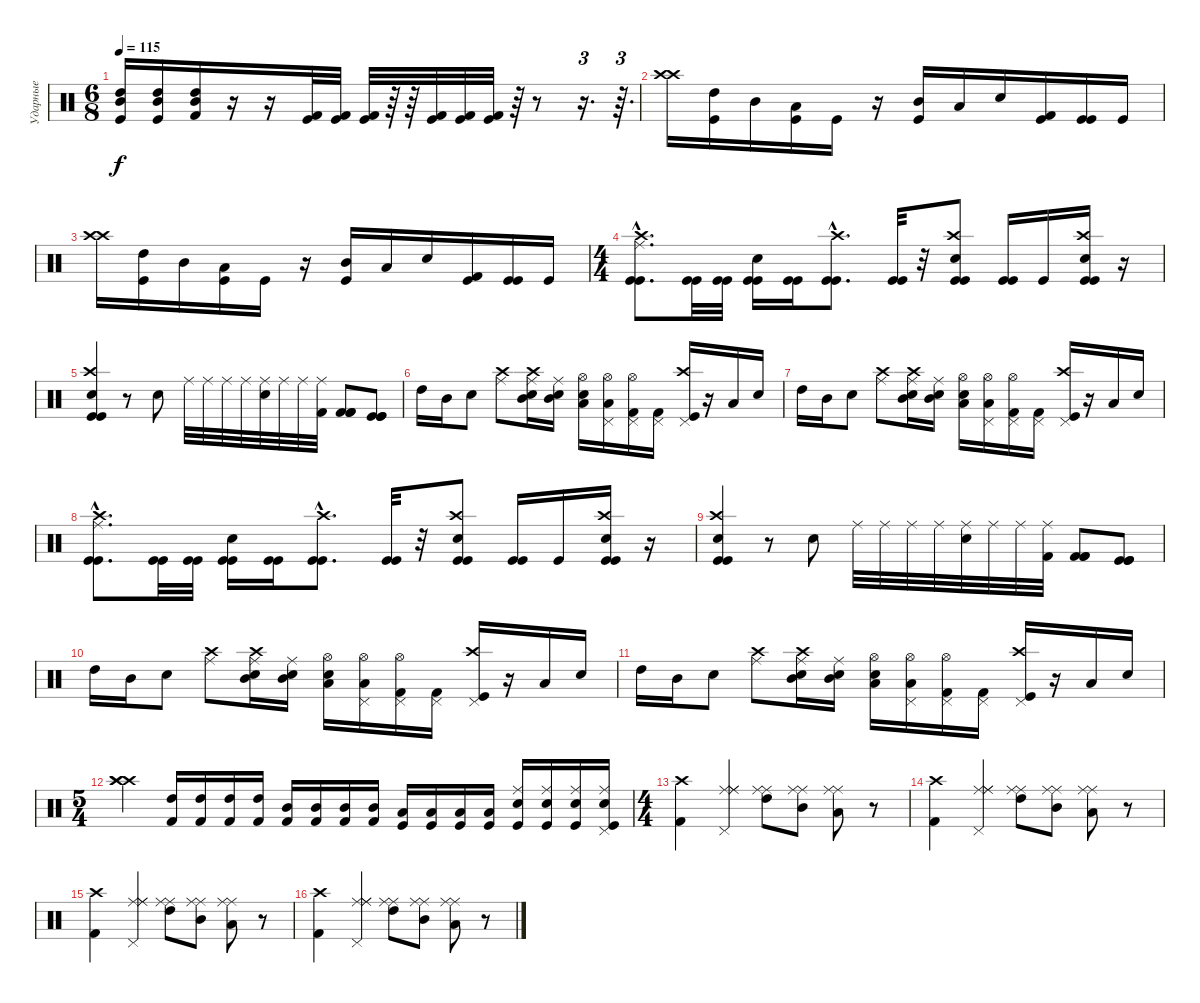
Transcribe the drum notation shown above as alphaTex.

\track ("Ударные" "Ударные") {instrument percussion}
\staff {score}
\articulation defaults
\ts (6 8)
\tempo 115
\clef neutral
\ks c
("High Tom (hit)" "Mid Tom (hit)" "Kick (hit)").16{dy f} ("High Tom (hit)" "Mid Tom (hit)" "Kick (hit)").16 ("High Tom (hit)" "Mid Tom (hit)" "Kick (hit) 2").16 r.16 r.16 ("Kick (hit)" "Kick (hit) 2").32 ("Kick (hit)" "Kick (hit) 2").32 ("Kick (hit)" "Kick (hit) 2").32 r.64 r.64 ("Kick (hit)" "Kick (hit) 2").32 ("Kick (hit)" "Kick (hit) 2").32 ("Kick (hit)" "Kick (hit) 2").32 r.64 r.8 r.16{d tu (3 2)} r.64{d tu (3 2)} |
("Crash high (hit)" "Crash high (hit)").16 ("High Tom (hit)" "Kick (hit)").16 "Mid Tom (hit)".16 ("Low Tom (hit)" "Kick (hit)").16 "Kick (hit)".16 r.16 ("Mid Tom (hit)" "Kick (hit)").16 "Low Tom (hit)".16 "Snare (hit) 2".16 ("Kick (hit) 2" "Kick (hit)").16 ("Kick (hit)" "Kick (hit)").16 "Kick (hit)".16 |
("Crash high (hit)" "Crash high (hit)").16 ("High Tom (hit)" "Kick (hit)").16 "Mid Tom (hit)".16 ("Low Tom (hit)" "Kick (hit)").16 "Kick (hit)".16 r.16 ("Mid Tom (hit)" "Kick (hit)").16 "Low Tom (hit)".16 "Snare (hit) 2".16 ("Kick (hit) 2" "Kick (hit)").16 ("Kick (hit)" "Kick (hit)").16 "Kick (hit)".16 |
\ts (4 4)
("Ride (middle)"{hac} "Crash high (hit)"{hac} "Kick (hit)"{hac} "Kick (hit)"{hac}).8{d} ("Kick (hit)" "Kick (hit)").32 ("Kick (hit)" "Kick (hit)").32 ("Kick (hit)" "Snare (hit) 2" "Kick (hit)").16 ("Kick (hit)" "Kick (hit)").16 ("Crash high (hit)"{hac} "Kick (hit)"{hac} "Kick (hit)"{hac}).8{d} ("Kick (hit)" "Kick (hit)").32 r.32 ("Crash high (hit)" "Kick (hit)" "Snare (hit) 2" "Kick (hit)").8 ("Kick (hit)" "Kick (hit)").16 "Kick (hit)".16 ("Crash high (hit)" "Kick (hit)" "Kick (hit)" "Snare (hit) 2").16 r.16 |
("Crash high (hit)" "Kick (hit)" "Snare (hit) 2" "Kick (hit)").4 r.8 "Electric Snare (hit)".8 "Ride (middle)".32{volume 0} "Ride (middle)".32{volume 14} "Ride (middle)".32 "Ride (middle)".32 ("Ride (middle)" "Electric Snare (hit)").32 "Ride (middle)".32 "Ride (middle)".32 ("Ride (middle)" "Kick (hit) 2").32 ("Kick (hit) 2" "Kick (hit) 2" "Kick (hit) 2").8 ("Kick (hit)" "Kick (hit)" "Kick (hit)").8 |
"High Tom (hit)".16 "Mid Tom (hit)".16 "Electric Snare (hit)".8 ("Crash high (hit)" "Ride (middle)").8 ("Crash high (hit)" "Mid Tom (hit)" "Electric Snare (hit)" "Ride (middle)").16 ("Mid Tom (hit)" "Electric Snare (hit)" "Ride (middle)").16 ("Electric Snare (hit)" "Low Tom (hit)" "Hi-Hat (open)").16 ("Hi-Hat (open)" "Low Tom (hit)" "Pedal Hi-Hat (hit)").16 ("Pedal Hi-Hat (hit)" "Kick (hit) 2" "Hi-Hat (open)").16 ("Kick (hit) 2" "Pedal Hi-Hat (hit)").16 ("Crash high (hit)" "Kick (hit)" "Pedal Hi-Hat (hit)").16 r.16 "Low Floor Tom (hit)".16 "Electric Snare (hit)".16 |
"High Tom (hit)".16 "Mid Tom (hit)".16 "Electric Snare (hit)".8 ("Crash high (hit)" "Ride (middle)").8 ("Crash high (hit)" "Mid Tom (hit)" "Electric Snare (hit)" "Ride (middle)").16 ("Mid Tom (hit)" "Electric Snare (hit)" "Ride (middle)").16 ("Electric Snare (hit)" "Low Tom (hit)" "Hi-Hat (open)").16 ("Hi-Hat (open)" "Low Tom (hit)" "Pedal Hi-Hat (hit)").16 ("Pedal Hi-Hat (hit)" "Kick (hit) 2" "Hi-Hat (open)").16 ("Kick (hit) 2" "Pedal Hi-Hat (hit)").16 ("Crash high (hit)" "Kick (hit)" "Pedal Hi-Hat (hit)").16 r.16 "Low Floor Tom (hit)".16 "Electric Snare (hit)".16 |
("Ride (middle)"{hac} "Crash high (hit)"{hac} "Kick (hit)"{hac} "Kick (hit)"{hac}).8{d} ("Kick (hit)" "Kick (hit)").32 ("Kick (hit)" "Kick (hit)").32 ("Kick (hit)" "Snare (hit) 2" "Kick (hit)").16 ("Kick (hit)" "Kick (hit)").16 ("Crash high (hit)"{hac} "Kick (hit)"{hac} "Kick (hit)"{hac}).8{d} ("Kick (hit)" "Kick (hit)").32 r.32 ("Crash high (hit)" "Kick (hit)" "Snare (hit) 2" "Kick (hit)").8 ("Kick (hit)" "Kick (hit)").16 "Kick (hit)".16 ("Crash high (hit)" "Kick (hit)" "Kick (hit)" "Snare (hit) 2").16 r.16 |
("Crash high (hit)" "Kick (hit)" "Snare (hit) 2" "Kick (hit)").4 r.8 "Electric Snare (hit)".8 "Ride (middle)".32{volume 0} "Ride (middle)".32{volume 14} "Ride (middle)".32 "Ride (middle)".32 ("Ride (middle)" "Electric Snare (hit)").32 "Ride (middle)".32 "Ride (middle)".32 ("Ride (middle)" "Kick (hit) 2").32 ("Kick (hit) 2" "Kick (hit) 2" "Kick (hit) 2").8 ("Kick (hit)" "Kick (hit)" "Kick (hit)").8 |
"High Tom (hit)".16 "Mid Tom (hit)".16 "Electric Snare (hit)".8 ("Crash high (hit)" "Ride (middle)").8 ("Crash high (hit)" "Mid Tom (hit)" "Electric Snare (hit)" "Ride (middle)").16 ("Mid Tom (hit)" "Electric Snare (hit)" "Ride (middle)").16 ("Electric Snare (hit)" "Low Tom (hit)" "Hi-Hat (open)").16 ("Hi-Hat (open)" "Low Tom (hit)" "Pedal Hi-Hat (hit)").16 ("Pedal Hi-Hat (hit)" "Kick (hit) 2" "Hi-Hat (open)").16 ("Kick (hit) 2" "Pedal Hi-Hat (hit)").16 ("Crash high (hit)" "Kick (hit)" "Pedal Hi-Hat (hit)").16 r.16 "Low Floor Tom (hit)".16 "Electric Snare (hit)".16 |
"High Tom (hit)".16 "Mid Tom (hit)".16 "Electric Snare (hit)".8 ("Crash high (hit)" "Ride (middle)").8 ("Crash high (hit)" "Mid Tom (hit)" "Electric Snare (hit)" "Ride (middle)").16 ("Mid Tom (hit)" "Electric Snare (hit)" "Ride (middle)").16 ("Electric Snare (hit)" "Low Tom (hit)" "Hi-Hat (open)").16 ("Hi-Hat (open)" "Low Tom (hit)" "Pedal Hi-Hat (hit)").16 ("Pedal Hi-Hat (hit)" "Kick (hit) 2" "Hi-Hat (open)").16 ("Kick (hit) 2" "Pedal Hi-Hat (hit)").16 ("Crash high (hit)" "Kick (hit)" "Pedal Hi-Hat (hit)").16 r.16 "Low Floor Tom (hit)".16 "Electric Snare (hit)".16 |
\ts (5 4)
("Crash high (hit)" "Crash high (hit)" "Crash high (hit)").4 ("High Tom (hit)" "Kick (hit) 2").16 ("High Tom (hit)" "Kick (hit) 2").16 ("High Tom (hit)" "Kick (hit) 2").16 ("High Tom (hit)" "Kick (hit) 2").16 ("Mid Tom (hit)" "Kick (hit) 2").16 ("Mid Tom (hit)" "Kick (hit) 2").16 ("Mid Tom (hit)" "Kick (hit) 2").16 ("Mid Tom (hit)" "Kick (hit) 2").16 ("Low Tom (hit)" "Kick (hit)").16 ("Low Tom (hit)" "Kick (hit)").16 ("Low Tom (hit)" "Kick (hit)").16 ("Low Tom (hit)" "Kick (hit)").16 ("Ride (middle)" "Electric Snare (hit)" "Kick (hit)").16 ("Ride (middle)" "Electric Snare (hit)" "Kick (hit)").16 ("Ride (middle)" "Electric Snare (hit)" "Kick (hit)").16 ("Ride (middle)" "Pedal Hi-Hat (hit)" "Snare (hit) 2" "Kick (hit)").16 |
\ts (4 4)
("Crash high (hit)" "Kick (hit) 2").4 ("Pedal Hi-Hat (hit)" "Ride (middle)" "Ride (middle)" "Ride (middle)").4 ("High Tom (hit)" "Ride (middle)" "Ride (middle)").8 ("Mid Tom (hit)" "Ride (middle)" "Ride (middle)").8 ("Low Tom (hit)" "Ride (middle)" "Ride (middle)").8 r.8 |
("Crash high (hit)" "Kick (hit) 2").4 ("Pedal Hi-Hat (hit)" "Ride (middle)" "Ride (middle)" "Ride (middle)").4 ("High Tom (hit)" "Ride (middle)" "Ride (middle)").8 ("Mid Tom (hit)" "Ride (middle)" "Ride (middle)").8 ("Low Tom (hit)" "Ride (middle)" "Ride (middle)").8 r.8 |
("Crash high (hit)" "Kick (hit) 2").4 ("Pedal Hi-Hat (hit)" "Ride (middle)" "Ride (middle)" "Ride (middle)").4 ("High Tom (hit)" "Ride (middle)" "Ride (middle)").8 ("Mid Tom (hit)" "Ride (middle)" "Ride (middle)").8 ("Low Tom (hit)" "Ride (middle)" "Ride (middle)").8 r.8 |
("Crash high (hit)" "Kick (hit) 2").4 ("Pedal Hi-Hat (hit)" "Ride (middle)" "Ride (middle)" "Ride (middle)").4 ("High Tom (hit)" "Ride (middle)" "Ride (middle)").8 ("Mid Tom (hit)" "Ride (middle)" "Ride (middle)").8 ("Low Tom (hit)" "Ride (middle)" "Ride (middle)").8 r.8
